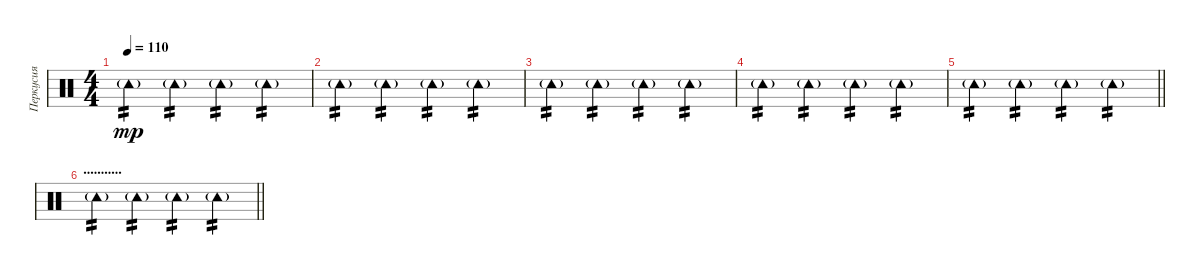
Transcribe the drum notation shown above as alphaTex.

\track ("Перкусия" "Перкусия") {instrument percussion}
\staff {score}
\articulation defaults
\ts (4 4)
\tempo 110
\clef neutral
\ks c "Tambourine (hit)"{g}.4{tp 2 dy mp} "Tambourine (hit)"{g}.4{tp 2} "Tambourine (hit)"{g}.4{tp 2} "Tambourine (hit)"{g}.4{tp 2}
|
"Tambourine (hit)"{g}.4{tp 2} "Tambourine (hit)"{g}.4{tp 2} "Tambourine (hit)"{g}.4{tp 2} "Tambourine (hit)"{g}.4{tp 2} |
"Tambourine (hit)"{g}.4{tp 2} "Tambourine (hit)"{g}.4{tp 2} "Tambourine (hit)"{g}.4{tp 2} "Tambourine (hit)"{g}.4{tp 2} |
"Tambourine (hit)"{g}.4{tp 2} "Tambourine (hit)"{g}.4{tp 2} "Tambourine (hit)"{g}.4{tp 2} "Tambourine (hit)"{g}.4{tp 2} |
\barLineRight lightlight "Tambourine (hit)"{g}.4{tp 2} "Tambourine (hit)"{g}.4{tp 2} "Tambourine (hit)"{g}.4{tp 2} "Tambourine (hit)"{g}.4{tp 2}
|
\section ("" "...........")
\barLineRight lightlight "Tambourine (hit)"{g}.4{tp 2} "Tambourine (hit)"{g}.4{tp 2} "Tambourine (hit)"{g}.4{tp 2} "Tambourine (hit)"{g}.4{tp 2}
